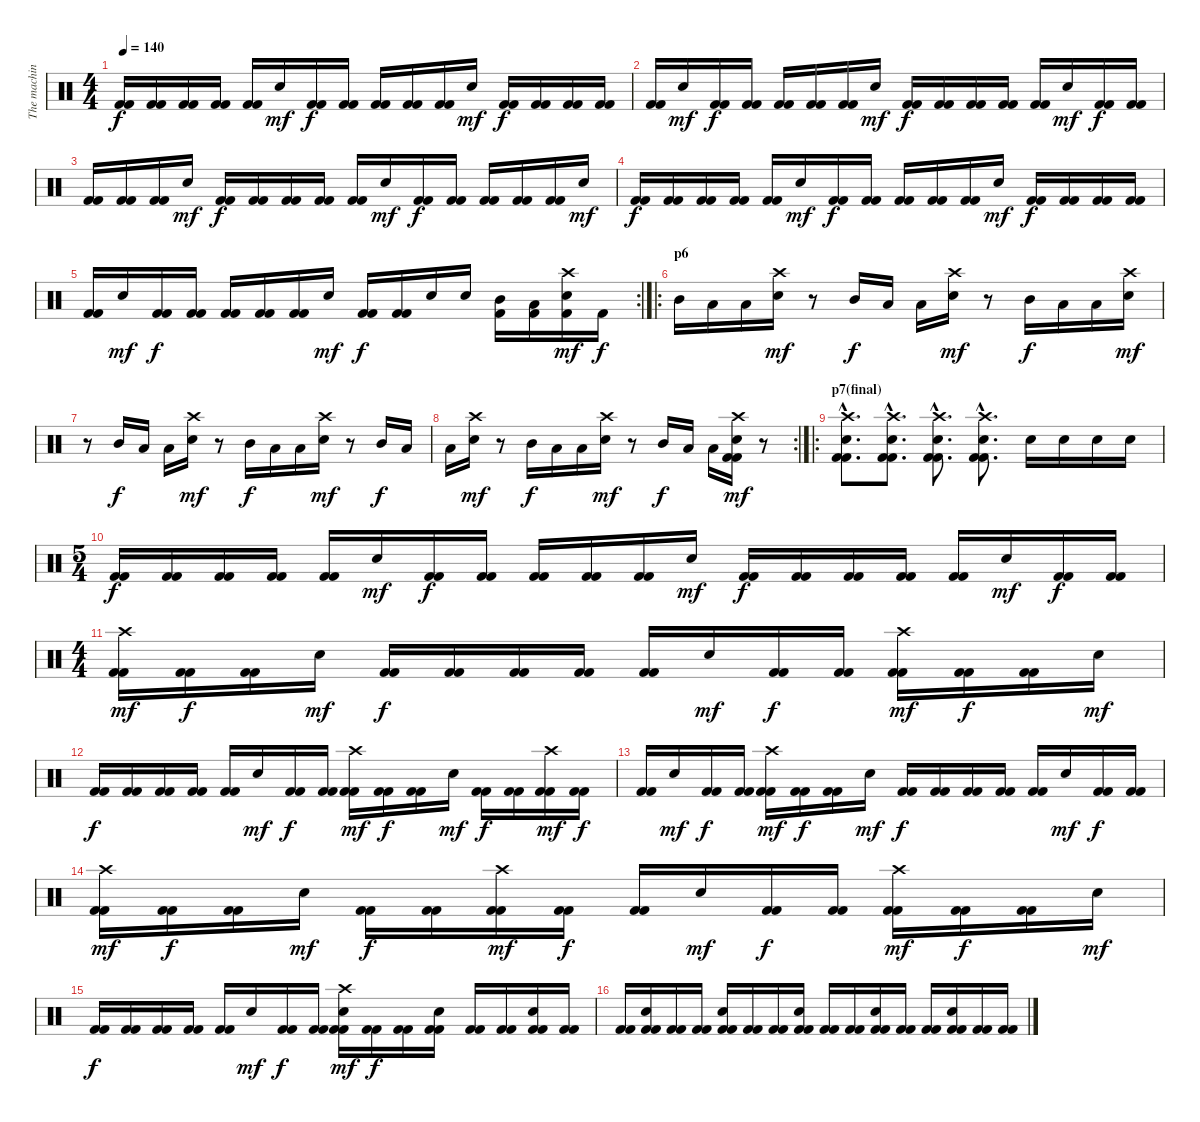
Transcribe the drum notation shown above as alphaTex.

\track ("The machine Reloaded" "The machin") {instrument percussion}
\staff {score}
\articulation defaults
\ts (4 4)
\tempo 140
\clef neutral
\ks c
("Kick (hit) 2" "Kick (hit) 2").16{dy f} ("Kick (hit) 2" "Kick (hit) 2").16 ("Kick (hit) 2" "Kick (hit) 2").16 ("Kick (hit) 2" "Kick (hit) 2").16 ("Kick (hit) 2" "Kick (hit) 2").16 "Snare (hit) 2".16{dy mf} ("Kick (hit) 2" "Kick (hit) 2").16{dy f} ("Kick (hit) 2" "Kick (hit) 2").16 ("Kick (hit) 2" "Kick (hit) 2").16 ("Kick (hit) 2" "Kick (hit) 2").16 ("Kick (hit) 2" "Kick (hit) 2").16 "Snare (hit) 2".16{dy mf} ("Kick (hit) 2" "Kick (hit) 2").16{dy f} ("Kick (hit) 2" "Kick (hit) 2").16 ("Kick (hit) 2" "Kick (hit) 2").16 ("Kick (hit) 2" "Kick (hit) 2").16 |
("Kick (hit) 2" "Kick (hit) 2").16 "Snare (hit) 2".16{dy mf} ("Kick (hit) 2" "Kick (hit) 2").16{dy f} ("Kick (hit) 2" "Kick (hit) 2").16 ("Kick (hit) 2" "Kick (hit) 2").16 ("Kick (hit) 2" "Kick (hit) 2").16 ("Kick (hit) 2" "Kick (hit) 2").16 "Snare (hit) 2".16{dy mf} ("Kick (hit) 2" "Kick (hit) 2").16{dy f} ("Kick (hit) 2" "Kick (hit) 2").16 ("Kick (hit) 2" "Kick (hit) 2").16 ("Kick (hit) 2" "Kick (hit) 2").16 ("Kick (hit) 2" "Kick (hit) 2").16 "Snare (hit) 2".16{dy mf} ("Kick (hit) 2" "Kick (hit) 2").16{dy f} ("Kick (hit) 2" "Kick (hit) 2").16 |
("Kick (hit) 2" "Kick (hit) 2").16 ("Kick (hit) 2" "Kick (hit) 2").16 ("Kick (hit) 2" "Kick (hit) 2").16 "Snare (hit) 2".16{dy mf} ("Kick (hit) 2" "Kick (hit) 2").16{dy f} ("Kick (hit) 2" "Kick (hit) 2").16 ("Kick (hit) 2" "Kick (hit) 2").16 ("Kick (hit) 2" "Kick (hit) 2").16 ("Kick (hit) 2" "Kick (hit) 2").16 "Snare (hit) 2".16{dy mf} ("Kick (hit) 2" "Kick (hit) 2").16{dy f} ("Kick (hit) 2" "Kick (hit) 2").16 ("Kick (hit) 2" "Kick (hit) 2").16 ("Kick (hit) 2" "Kick (hit) 2").16 ("Kick (hit) 2" "Kick (hit) 2").16 "Snare (hit) 2".16{dy mf} |
("Kick (hit) 2" "Kick (hit) 2").16{dy f} ("Kick (hit) 2" "Kick (hit) 2").16 ("Kick (hit) 2" "Kick (hit) 2").16 ("Kick (hit) 2" "Kick (hit) 2").16 ("Kick (hit) 2" "Kick (hit) 2").16 "Snare (hit) 2".16{dy mf} ("Kick (hit) 2" "Kick (hit) 2").16{dy f} ("Kick (hit) 2" "Kick (hit) 2").16 ("Kick (hit) 2" "Kick (hit) 2").16 ("Kick (hit) 2" "Kick (hit) 2").16 ("Kick (hit) 2" "Kick (hit) 2").16 "Snare (hit) 2".16{dy mf} ("Kick (hit) 2" "Kick (hit) 2").16{dy f} ("Kick (hit) 2" "Kick (hit) 2").16 ("Kick (hit) 2" "Kick (hit) 2").16 ("Kick (hit) 2" "Kick (hit) 2").16 |
\rc 2
("Kick (hit) 2" "Kick (hit) 2").16 "Snare (hit) 2".16{dy mf} ("Kick (hit) 2" "Kick (hit) 2").16{dy f} ("Kick (hit) 2" "Kick (hit) 2").16 ("Kick (hit) 2" "Kick (hit) 2").16 ("Kick (hit) 2" "Kick (hit) 2").16 ("Kick (hit) 2" "Kick (hit) 2").16 "Snare (hit) 2".16{dy mf} ("Kick (hit) 2" "Kick (hit) 2").16{dy f} ("Kick (hit) 2" "Kick (hit) 2").16 "Snare (hit) 2".16 "Snare (hit) 2".16 ("Mid Tom (hit)" "Kick (hit) 2").16 ("Low Tom (hit)" "Kick (hit) 2").16 ("Crash high (hit)" "Snare (hit) 2" "Kick (hit) 2").16{dy mf} "Kick (hit) 2".16{dy f} |
\ro
\section ("" "p6")
"Mid Tom (hit)".16 "Low Tom (hit)".16 "Low Tom (hit)".16 ("Crash high (hit)" "Snare (hit) 2").16{dy mf} r.8 "Mid Tom (hit)".16{dy f} "Low Tom (hit)".16 "Low Tom (hit)".16 ("Crash high (hit)" "Snare (hit) 2").16{dy mf} r.8 "Mid Tom (hit)".16{dy f} "Low Tom (hit)".16 "Low Tom (hit)".16 ("Crash high (hit)" "Snare (hit) 2").16{dy mf} |
r.8 "Mid Tom (hit)".16{dy f} "Low Tom (hit)".16 "Low Tom (hit)".16 ("Crash high (hit)" "Snare (hit) 2").16{dy mf} r.8 "Mid Tom (hit)".16{dy f} "Low Tom (hit)".16 "Low Tom (hit)".16 ("Crash high (hit)" "Snare (hit) 2").16{dy mf} r.8 "Mid Tom (hit)".16{dy f} "Low Tom (hit)".16 |
\rc 2 "Low Tom (hit)".16
("Crash high (hit)" "Snare (hit) 2").16{dy mf} r.8 "Mid Tom (hit)".16{dy f} "Low Tom (hit)".16 "Low Tom (hit)".16 ("Crash high (hit)" "Snare (hit) 2").16{dy mf} r.8 "Mid Tom (hit)".16{dy f} "Low Tom (hit)".16 "Low Tom (hit)".16 ("Crash high (hit)" "Kick (hit) 2" "Snare (hit) 2" "Kick (hit) 2").16{dy mf} r.8 |
\ro
\section ("" "p7(final)")
("Crash high (hit)"{hac} "Kick (hit) 2"{hac} "Snare (hit) 2"{hac} "Kick (hit) 2"{hac}).8{d} ("Crash high (hit)"{hac} "Kick (hit) 2"{hac} "Snare (hit) 2"{hac} "Kick (hit) 2"{hac}).8{d} ("Crash high (hit)"{hac} "Kick (hit) 2"{hac} "Snare (hit) 2"{hac} "Kick (hit) 2"{hac}).8{d} ("Crash high (hit)"{hac} "Kick (hit) 2"{hac} "Snare (hit) 2"{hac} "Kick (hit) 2"{hac}).8{d} "Snare (hit) 2".16 "Snare (hit) 2".16 "Snare (hit) 2".16 "Snare (hit) 2".16 |
\ts (5 4)
("Kick (hit) 2" "Kick (hit) 2").16{dy f} ("Kick (hit) 2" "Kick (hit) 2").16 ("Kick (hit) 2" "Kick (hit) 2").16 ("Kick (hit) 2" "Kick (hit) 2").16 ("Kick (hit) 2" "Kick (hit) 2").16 "Snare (hit) 2".16{dy mf} ("Kick (hit) 2" "Kick (hit) 2").16{dy f} ("Kick (hit) 2" "Kick (hit) 2").16 ("Kick (hit) 2" "Kick (hit) 2").16 ("Kick (hit) 2" "Kick (hit) 2").16 ("Kick (hit) 2" "Kick (hit) 2").16 "Snare (hit) 2".16{dy mf} ("Kick (hit) 2" "Kick (hit) 2").16{dy f} ("Kick (hit) 2" "Kick (hit) 2").16 ("Kick (hit) 2" "Kick (hit) 2").16 ("Kick (hit) 2" "Kick (hit) 2").16 ("Kick (hit) 2" "Kick (hit) 2").16 "Snare (hit) 2".16{dy mf} ("Kick (hit) 2" "Kick (hit) 2").16{dy f} ("Kick (hit) 2" "Kick (hit) 2").16 |
\ts (4 4)
("Crash high (hit)" "Kick (hit) 2" "Kick (hit) 2").16{dy mf} ("Kick (hit) 2" "Kick (hit) 2").16{dy f} ("Kick (hit) 2" "Kick (hit) 2").16 "Snare (hit) 2".16{dy mf} ("Kick (hit) 2" "Kick (hit) 2").16{dy f} ("Kick (hit) 2" "Kick (hit) 2").16 ("Kick (hit) 2" "Kick (hit) 2").16 ("Kick (hit) 2" "Kick (hit) 2").16 ("Kick (hit) 2" "Kick (hit) 2").16 "Snare (hit) 2".16{dy mf} ("Kick (hit) 2" "Kick (hit) 2").16{dy f} ("Kick (hit) 2" "Kick (hit) 2").16 ("Crash high (hit)" "Kick (hit) 2" "Kick (hit) 2").16{dy mf} ("Kick (hit) 2" "Kick (hit) 2").16{dy f} ("Kick (hit) 2" "Kick (hit) 2").16 "Snare (hit) 2".16{dy mf} |
("Kick (hit) 2" "Kick (hit) 2").16{dy f} ("Kick (hit) 2" "Kick (hit) 2").16 ("Kick (hit) 2" "Kick (hit) 2").16 ("Kick (hit) 2" "Kick (hit) 2").16 ("Kick (hit) 2" "Kick (hit) 2").16 "Snare (hit) 2".16{dy mf} ("Kick (hit) 2" "Kick (hit) 2").16{dy f} ("Kick (hit) 2" "Kick (hit) 2").16 ("Crash high (hit)" "Kick (hit) 2" "Kick (hit) 2").16{dy mf} ("Kick (hit) 2" "Kick (hit) 2").16{dy f} ("Kick (hit) 2" "Kick (hit) 2").16 "Snare (hit) 2".16{dy mf} ("Kick (hit) 2" "Kick (hit) 2").16{dy f} ("Kick (hit) 2" "Kick (hit) 2").16 ("Crash high (hit)" "Kick (hit) 2" "Kick (hit) 2").16{dy mf} ("Kick (hit) 2" "Kick (hit) 2").16{dy f} |
("Kick (hit) 2" "Kick (hit) 2").16 "Snare (hit) 2".16{dy mf} ("Kick (hit) 2" "Kick (hit) 2").16{dy f} ("Kick (hit) 2" "Kick (hit) 2").16 ("Crash high (hit)" "Kick (hit) 2" "Kick (hit) 2").16{dy mf} ("Kick (hit) 2" "Kick (hit) 2").16{dy f} ("Kick (hit) 2" "Kick (hit) 2").16 "Snare (hit) 2".16{dy mf} ("Kick (hit) 2" "Kick (hit) 2").16{dy f} ("Kick (hit) 2" "Kick (hit) 2").16 ("Kick (hit) 2" "Kick (hit) 2").16 ("Kick (hit) 2" "Kick (hit) 2").16 ("Kick (hit) 2" "Kick (hit) 2").16 "Snare (hit) 2".16{dy mf} ("Kick (hit) 2" "Kick (hit) 2").16{dy f} ("Kick (hit) 2" "Kick (hit) 2").16 |
("Crash high (hit)" "Kick (hit) 2" "Kick (hit) 2").16{dy mf} ("Kick (hit) 2" "Kick (hit) 2").16{dy f} ("Kick (hit) 2" "Kick (hit) 2").16 "Snare (hit) 2".16{dy mf} ("Kick (hit) 2" "Kick (hit) 2").16{dy f} ("Kick (hit) 2" "Kick (hit) 2").16 ("Crash high (hit)" "Kick (hit) 2" "Kick (hit) 2").16{dy mf} ("Kick (hit) 2" "Kick (hit) 2").16{dy f} ("Kick (hit) 2" "Kick (hit) 2").16 "Snare (hit) 2".16{dy mf} ("Kick (hit) 2" "Kick (hit) 2").16{dy f} ("Kick (hit) 2" "Kick (hit) 2").16 ("Crash high (hit)" "Kick (hit) 2" "Kick (hit) 2").16{dy mf} ("Kick (hit) 2" "Kick (hit) 2").16{dy f} ("Kick (hit) 2" "Kick (hit) 2").16 "Snare (hit) 2".16{dy mf} |
("Kick (hit) 2" "Kick (hit) 2").16{dy f} ("Kick (hit) 2" "Kick (hit) 2").16 ("Kick (hit) 2" "Kick (hit) 2").16 ("Kick (hit) 2" "Kick (hit) 2").16 ("Kick (hit) 2" "Kick (hit) 2").16 "Snare (hit) 2".16{dy mf} ("Kick (hit) 2" "Kick (hit) 2").16{dy f} ("Kick (hit) 2" "Kick (hit) 2").16 ("Crash high (hit)" "Kick (hit) 2" "Snare (hit) 2" "Kick (hit) 2").16{dy mf} ("Kick (hit) 2" "Kick (hit) 2").16{dy f} ("Kick (hit) 2" "Kick (hit) 2").16 ("Kick (hit) 2" "Snare (hit) 2" "Kick (hit) 2").16 ("Kick (hit) 2" "Kick (hit) 2").16 ("Kick (hit) 2" "Kick (hit) 2").16 ("Kick (hit) 2" "Snare (hit) 2" "Kick (hit) 2").16 ("Kick (hit) 2" "Kick (hit) 2").16 |
("Kick (hit) 2" "Kick (hit) 2").16 ("Kick (hit) 2" "Snare (hit) 2" "Kick (hit) 2").16 ("Kick (hit) 2" "Kick (hit) 2").16 ("Kick (hit) 2" "Kick (hit) 2").16 ("Kick (hit) 2" "Snare (hit) 2" "Kick (hit) 2").16 ("Kick (hit) 2" "Kick (hit) 2").16 ("Kick (hit) 2" "Kick (hit) 2").16 ("Kick (hit) 2" "Snare (hit) 2" "Kick (hit) 2").16 ("Kick (hit) 2" "Kick (hit) 2").16 ("Kick (hit) 2" "Kick (hit) 2").16 ("Kick (hit) 2" "Snare (hit) 2" "Kick (hit) 2").16 ("Kick (hit) 2" "Kick (hit) 2").16 ("Kick (hit) 2" "Kick (hit) 2").16 ("Kick (hit) 2" "Snare (hit) 2" "Kick (hit) 2").16 ("Kick (hit) 2" "Kick (hit) 2").16 ("Kick (hit) 2" "Kick (hit) 2").16
